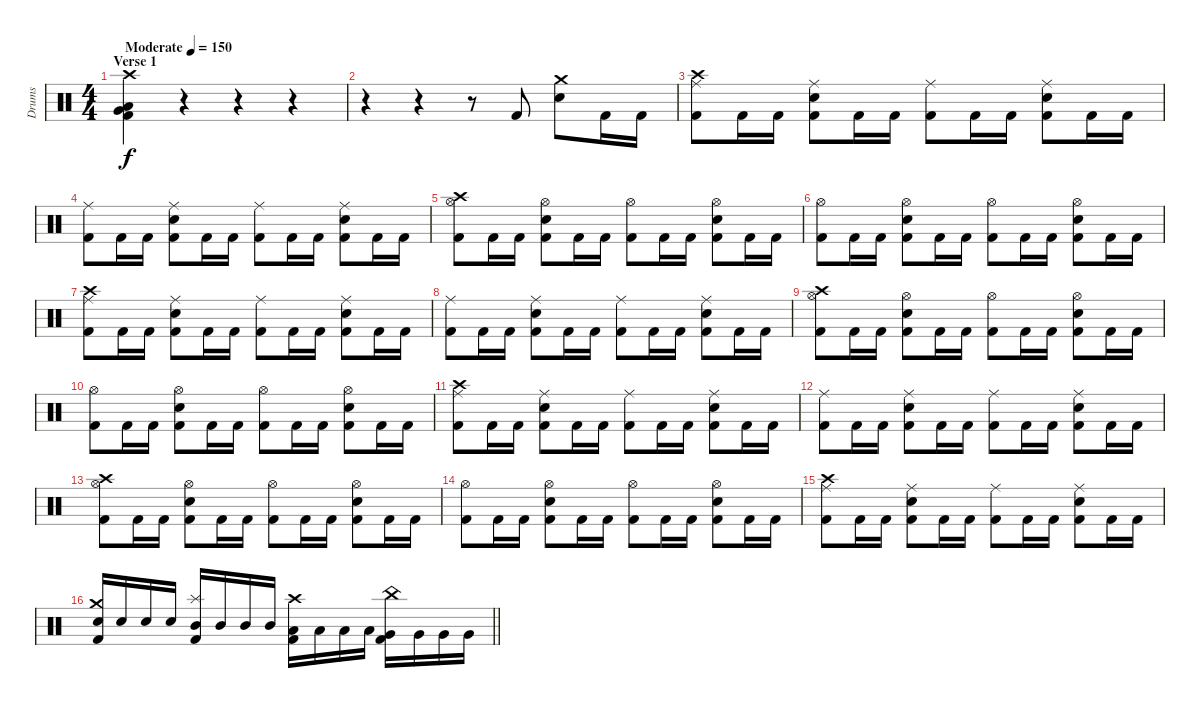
\track ("Drums" "Drums") {instrument percussion}
\staff {score}
\articulation defaults
\ts (4 4)
\section ("" "Verse 1")
\tempo (150 "Moderate")
\clef neutral
\ks c
("Crash high (hit)" "Low Floor Tom (hit)" "Very Low Tom (hit)" "Kick (hit) 2").4{dy f} r.4 r.4 r.4 |
r.4 r.4 r.8 "Kick (hit) 2".8 ("Crash medium (hit)" "Snare (hit) 2").8 "Kick (hit) 2".16 "Kick (hit) 2".16 |
("Crash high (hit)" "Ride (middle)" "Kick (hit) 2").8 "Kick (hit) 2".16 "Kick (hit) 2".16 ("Ride (middle)" "Snare (hit) 2" "Kick (hit) 2").8 "Kick (hit) 2".16 "Kick (hit) 2".16 ("Ride (middle)" "Kick (hit) 2").8 "Kick (hit) 2".16 "Kick (hit) 2".16 ("Ride (middle)" "Snare (hit) 2" "Kick (hit) 2").8 "Kick (hit) 2".16 "Kick (hit) 2".16 |
("Ride (middle)" "Kick (hit) 2").8 "Kick (hit) 2".16 "Kick (hit) 2".16 ("Ride (middle)" "Snare (hit) 2" "Kick (hit) 2").8 "Kick (hit) 2".16 "Kick (hit) 2".16 ("Ride (middle)" "Kick (hit) 2").8 "Kick (hit) 2".16 "Kick (hit) 2".16 ("Ride (middle)" "Snare (hit) 2" "Kick (hit) 2").8 "Kick (hit) 2".16 "Kick (hit) 2".16 |
("Crash high (hit)" "Hi-Hat (open)" "Kick (hit) 2").8 "Kick (hit) 2".16 "Kick (hit) 2".16 ("Hi-Hat (open)" "Snare (hit) 2" "Kick (hit) 2").8 "Kick (hit) 2".16 "Kick (hit) 2".16 ("Hi-Hat (open)" "Kick (hit) 2").8 "Kick (hit) 2".16 "Kick (hit) 2".16 ("Hi-Hat (open)" "Snare (hit) 2" "Kick (hit) 2").8 "Kick (hit) 2".16 "Kick (hit) 2".16 |
("Hi-Hat (open)" "Kick (hit) 2").8 "Kick (hit) 2".16 "Kick (hit) 2".16 ("Hi-Hat (open)" "Snare (hit) 2" "Kick (hit) 2").8 "Kick (hit) 2".16 "Kick (hit) 2".16 ("Hi-Hat (open)" "Kick (hit) 2").8 "Kick (hit) 2".16 "Kick (hit) 2".16 ("Hi-Hat (open)" "Snare (hit) 2" "Kick (hit) 2").8 "Kick (hit) 2".16 "Kick (hit) 2".16 |
("Crash high (hit)" "Ride (middle)" "Kick (hit) 2").8 "Kick (hit) 2".16 "Kick (hit) 2".16 ("Ride (middle)" "Snare (hit) 2" "Kick (hit) 2").8 "Kick (hit) 2".16 "Kick (hit) 2".16 ("Ride (middle)" "Kick (hit) 2").8 "Kick (hit) 2".16 "Kick (hit) 2".16 ("Ride (middle)" "Snare (hit) 2" "Kick (hit) 2").8 "Kick (hit) 2".16 "Kick (hit) 2".16 |
("Ride (middle)" "Kick (hit) 2").8 "Kick (hit) 2".16 "Kick (hit) 2".16 ("Ride (middle)" "Snare (hit) 2" "Kick (hit) 2").8 "Kick (hit) 2".16 "Kick (hit) 2".16 ("Ride (middle)" "Kick (hit) 2").8 "Kick (hit) 2".16 "Kick (hit) 2".16 ("Ride (middle)" "Snare (hit) 2" "Kick (hit) 2").8 "Kick (hit) 2".16 "Kick (hit) 2".16 |
("Crash high (hit)" "Hi-Hat (open)" "Kick (hit) 2").8 "Kick (hit) 2".16 "Kick (hit) 2".16 ("Hi-Hat (open)" "Snare (hit) 2" "Kick (hit) 2").8 "Kick (hit) 2".16 "Kick (hit) 2".16 ("Hi-Hat (open)" "Kick (hit) 2").8 "Kick (hit) 2".16 "Kick (hit) 2".16 ("Hi-Hat (open)" "Snare (hit) 2" "Kick (hit) 2").8 "Kick (hit) 2".16 "Kick (hit) 2".16 |
("Hi-Hat (open)" "Kick (hit) 2").8 "Kick (hit) 2".16 "Kick (hit) 2".16 ("Hi-Hat (open)" "Snare (hit) 2" "Kick (hit) 2").8 "Kick (hit) 2".16 "Kick (hit) 2".16 ("Hi-Hat (open)" "Kick (hit) 2").8 "Kick (hit) 2".16 "Kick (hit) 2".16 ("Hi-Hat (open)" "Snare (hit) 2" "Kick (hit) 2").8 "Kick (hit) 2".16 "Kick (hit) 2".16 |
("Crash high (hit)" "Ride (middle)" "Kick (hit) 2").8 "Kick (hit) 2".16 "Kick (hit) 2".16 ("Ride (middle)" "Snare (hit) 2" "Kick (hit) 2").8 "Kick (hit) 2".16 "Kick (hit) 2".16 ("Ride (middle)" "Kick (hit) 2").8 "Kick (hit) 2".16 "Kick (hit) 2".16 ("Ride (middle)" "Snare (hit) 2" "Kick (hit) 2").8 "Kick (hit) 2".16 "Kick (hit) 2".16 |
("Ride (middle)" "Kick (hit) 2").8 "Kick (hit) 2".16 "Kick (hit) 2".16 ("Ride (middle)" "Snare (hit) 2" "Kick (hit) 2").8 "Kick (hit) 2".16 "Kick (hit) 2".16 ("Ride (middle)" "Kick (hit) 2").8 "Kick (hit) 2".16 "Kick (hit) 2".16 ("Ride (middle)" "Snare (hit) 2" "Kick (hit) 2").8 "Kick (hit) 2".16 "Kick (hit) 2".16 |
("Crash high (hit)" "Hi-Hat (open)" "Kick (hit) 2").8 "Kick (hit) 2".16 "Kick (hit) 2".16 ("Hi-Hat (open)" "Snare (hit) 2" "Kick (hit) 2").8 "Kick (hit) 2".16 "Kick (hit) 2".16 ("Hi-Hat (open)" "Kick (hit) 2").8 "Kick (hit) 2".16 "Kick (hit) 2".16 ("Hi-Hat (open)" "Snare (hit) 2" "Kick (hit) 2").8 "Kick (hit) 2".16 "Kick (hit) 2".16 |
("Hi-Hat (open)" "Kick (hit) 2").8 "Kick (hit) 2".16 "Kick (hit) 2".16 ("Hi-Hat (open)" "Snare (hit) 2" "Kick (hit) 2").8 "Kick (hit) 2".16 "Kick (hit) 2".16 ("Hi-Hat (open)" "Kick (hit) 2").8 "Kick (hit) 2".16 "Kick (hit) 2".16 ("Hi-Hat (open)" "Snare (hit) 2" "Kick (hit) 2").8 "Kick (hit) 2".16 "Kick (hit) 2".16 |
("Crash high (hit)" "Ride (middle)" "Kick (hit) 2").8 "Kick (hit) 2".16 "Kick (hit) 2".16 ("Ride (middle)" "Snare (hit) 2" "Kick (hit) 2").8 "Kick (hit) 2".16 "Kick (hit) 2".16 ("Ride (middle)" "Kick (hit) 2").8 "Kick (hit) 2".16 "Kick (hit) 2".16 ("Ride (middle)" "Snare (hit) 2" "Kick (hit) 2").8 "Kick (hit) 2".16 "Kick (hit) 2".16 |
\barLineRight lightlight
("Crash medium (hit)" "Snare (hit) 2" "Kick (hit) 2").16 "Snare (hit) 2".16 "Snare (hit) 2".16 "Snare (hit) 2".16 ("Splash (hit)" "Mid Tom (hit)" "Kick (hit) 2").16 "Mid Tom (hit)".16 "Mid Tom (hit)".16 "Mid Tom (hit)".16 ("Crash high (hit)" "Low Tom (hit)" "Kick (hit) 2").16 "Low Tom (hit)".16 "Low Tom (hit)".16 "Low Tom (hit)".16 ("China (hit)" "Very Low Tom (hit)" "Kick (hit) 2").16 "Very Low Tom (hit)".16 "Very Low Tom (hit)".16 "Very Low Tom (hit)".16
